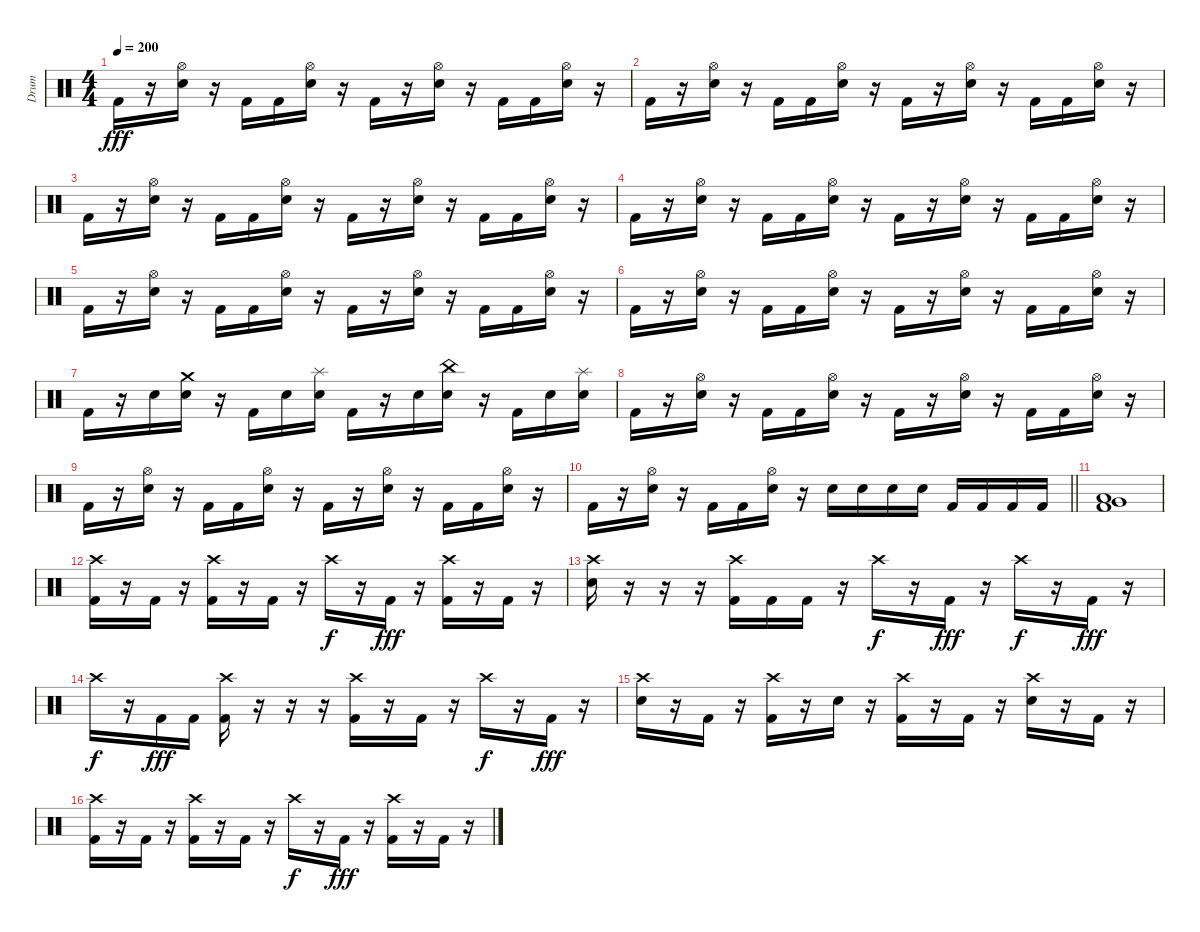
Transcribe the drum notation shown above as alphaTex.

\track ("Drum" "Drum") {instrument percussion}
\staff {score}
\articulation defaults
\ts (4 4)
\tempo 200
\clef neutral
\ks c "Kick (hit) 2".16{dy fff}
r.16 ("Hi-Hat (open)" "Electric Snare (hit)").16 r.16 "Kick (hit) 2".16 "Kick (hit) 2".16 ("Hi-Hat (open)" "Electric Snare (hit)").16 r.16 "Kick (hit) 2".16 r.16 ("Hi-Hat (open)" "Electric Snare (hit)").16 r.16 "Kick (hit) 2".16 "Kick (hit) 2".16 ("Hi-Hat (open)" "Electric Snare (hit)").16 r.16 |
"Kick (hit) 2".16 r.16 ("Hi-Hat (open)" "Electric Snare (hit)").16 r.16 "Kick (hit) 2".16 "Kick (hit) 2".16 ("Hi-Hat (open)" "Electric Snare (hit)").16 r.16 "Kick (hit) 2".16 r.16 ("Hi-Hat (open)" "Electric Snare (hit)").16 r.16 "Kick (hit) 2".16 "Kick (hit) 2".16 ("Hi-Hat (open)" "Electric Snare (hit)").16 r.16 |
"Kick (hit) 2".16 r.16 ("Hi-Hat (open)" "Electric Snare (hit)").16 r.16 "Kick (hit) 2".16 "Kick (hit) 2".16 ("Hi-Hat (open)" "Electric Snare (hit)").16 r.16 "Kick (hit) 2".16 r.16 ("Hi-Hat (open)" "Electric Snare (hit)").16 r.16 "Kick (hit) 2".16 "Kick (hit) 2".16 ("Hi-Hat (open)" "Electric Snare (hit)").16 r.16 |
"Kick (hit) 2".16 r.16 ("Hi-Hat (open)" "Electric Snare (hit)").16 r.16 "Kick (hit) 2".16 "Kick (hit) 2".16 ("Hi-Hat (open)" "Electric Snare (hit)").16 r.16 "Kick (hit) 2".16 r.16 ("Hi-Hat (open)" "Electric Snare (hit)").16 r.16 "Kick (hit) 2".16 "Kick (hit) 2".16 ("Hi-Hat (open)" "Electric Snare (hit)").16 r.16 |
"Kick (hit) 2".16 r.16 ("Hi-Hat (open)" "Electric Snare (hit)").16 r.16 "Kick (hit) 2".16 "Kick (hit) 2".16 ("Hi-Hat (open)" "Electric Snare (hit)").16 r.16 "Kick (hit) 2".16 r.16 ("Hi-Hat (open)" "Electric Snare (hit)").16 r.16 "Kick (hit) 2".16 "Kick (hit) 2".16 ("Hi-Hat (open)" "Electric Snare (hit)").16 r.16 |
"Kick (hit) 2".16 r.16 ("Hi-Hat (open)" "Electric Snare (hit)").16 r.16 "Kick (hit) 2".16 "Kick (hit) 2".16 ("Hi-Hat (open)" "Electric Snare (hit)").16 r.16 "Kick (hit) 2".16 r.16 ("Hi-Hat (open)" "Electric Snare (hit)").16 r.16 "Kick (hit) 2".16 "Kick (hit) 2".16 ("Hi-Hat (open)" "Electric Snare (hit)").16 r.16 |
"Kick (hit) 2".16 r.16 "Electric Snare (hit)".16 ("Crash medium (hit)" "Electric Snare (hit)").16 r.16 "Kick (hit) 2".16 "Electric Snare (hit)".16 ("Splash (hit)" "Electric Snare (hit)").16 "Kick (hit) 2".16 r.16 "Electric Snare (hit)".16 ("China (hit)" "Electric Snare (hit)").16 r.16 "Kick (hit) 2".16 "Electric Snare (hit)".16 ("Splash (hit)" "Electric Snare (hit)").16 |
"Kick (hit) 2".16 r.16 ("Hi-Hat (open)" "Electric Snare (hit)").16 r.16 "Kick (hit) 2".16 "Kick (hit) 2".16 ("Hi-Hat (open)" "Electric Snare (hit)").16 r.16 "Kick (hit) 2".16 r.16 ("Hi-Hat (open)" "Electric Snare (hit)").16 r.16 "Kick (hit) 2".16 "Kick (hit) 2".16 ("Hi-Hat (open)" "Electric Snare (hit)").16 r.16 |
"Kick (hit) 2".16 r.16 ("Hi-Hat (open)" "Electric Snare (hit)").16 r.16 "Kick (hit) 2".16 "Kick (hit) 2".16 ("Hi-Hat (open)" "Electric Snare (hit)").16 r.16 "Kick (hit) 2".16 r.16 ("Hi-Hat (open)" "Electric Snare (hit)").16 r.16 "Kick (hit) 2".16 "Kick (hit) 2".16 ("Hi-Hat (open)" "Electric Snare (hit)").16 r.16 |
\barLineRight lightlight "Kick (hit) 2".16
r.16 ("Hi-Hat (open)" "Electric Snare (hit)").16 r.16 "Kick (hit) 2".16 "Kick (hit) 2".16 ("Hi-Hat (open)" "Electric Snare (hit)").16 r.16 "Electric Snare (hit)".16 "Electric Snare (hit)".16 "Electric Snare (hit)".16 "Electric Snare (hit)".16 "Kick (hit) 2".16 "Kick (hit) 2".16 "Kick (hit) 2".16 "Kick (hit) 2".16 |
\section ("" "")
("Low Tom (hit)" "Very Low Tom (hit)" "Kick (hit) 2").1 |
("Crash high (hit)" "Kick (hit) 2").16 r.16 "Kick (hit) 2".16 r.16 ("Crash high (hit)" "Kick (hit) 2").16 r.16 "Kick (hit) 2".16 r.16 "Crash high (hit)".16{dy f} r.16 "Kick (hit) 2".16{dy fff} r.16 ("Crash high (hit)" "Kick (hit) 2").16 r.16 "Kick (hit) 2".16 r.16 |
("Crash high (hit)" "Electric Snare (hit)").16 r.16 r.16 r.16 ("Crash high (hit)" "Kick (hit) 2").16 "Kick (hit) 2".16 "Kick (hit) 2".16 r.16 "Crash high (hit)".16{dy f} r.16 "Kick (hit) 2".16{dy fff} r.16 "Crash high (hit)".16{dy f} r.16 "Kick (hit) 2".16{dy fff} r.16 |
"Crash high (hit)".16{dy f} r.16 "Kick (hit) 2".16{dy fff} "Kick (hit) 2".16 ("Crash high (hit)" "Kick (hit) 2").16 r.16 r.16 r.16 ("Crash high (hit)" "Kick (hit) 2").16 r.16 "Kick (hit) 2".16 r.16 "Crash high (hit)".16{dy f} r.16 "Kick (hit) 2".16{dy fff} r.16 |
("Crash high (hit)" "Electric Snare (hit)").16 r.16 "Kick (hit) 2".16 r.16 ("Crash high (hit)" "Kick (hit) 2").16 r.16 "Electric Snare (hit)".16 r.16 ("Crash high (hit)" "Kick (hit) 2").16 r.16 "Kick (hit) 2".16 r.16 ("Crash high (hit)" "Electric Snare (hit)").16 r.16 "Kick (hit) 2".16 r.16 |
("Crash high (hit)" "Kick (hit) 2").16 r.16 "Kick (hit) 2".16 r.16 ("Crash high (hit)" "Kick (hit) 2").16 r.16 "Kick (hit) 2".16 r.16 "Crash high (hit)".16{dy f} r.16 "Kick (hit) 2".16{dy fff} r.16 ("Crash high (hit)" "Kick (hit) 2").16 r.16 "Kick (hit) 2".16 r.16
